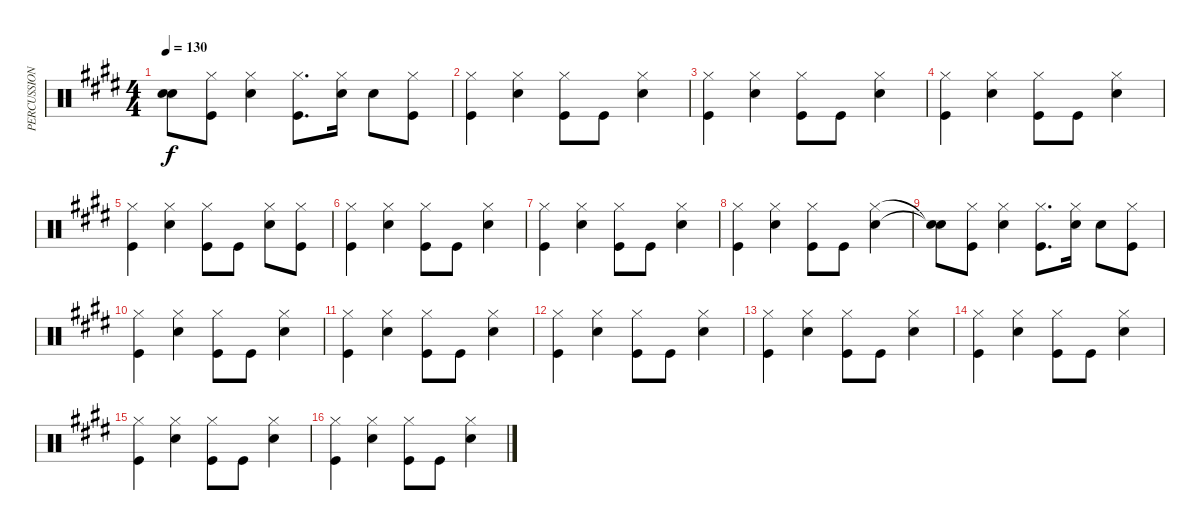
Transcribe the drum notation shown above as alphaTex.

\track ("PERCUSSION" "PERCUSSION") {instrument percussion}
\staff {score}
\articulation defaults
\ts (4 4)
\tempo 130
\clef neutral
\ks e
("Snare (hit)"{t} "Snare (hit)"{t}).8{dy f} ("Hi-Hat (closed)" "Kick (hit)").8 ("Hi-Hat (closed)" "Snare (hit) 2").4 ("Hi-Hat (closed)" "Kick (hit)").8{d} ("Hi-Hat (closed)" "Snare (hit) 2").16 "Snare (hit) 2".8 ("Hi-Hat (closed)" "Kick (hit)").8 |
("Hi-Hat (closed)" "Kick (hit)").4 ("Hi-Hat (closed)" "Snare (hit) 2").4 ("Hi-Hat (closed)" "Kick (hit)").8 "Kick (hit)".8 ("Hi-Hat (closed)" "Snare (hit) 2").4 |
("Hi-Hat (closed)" "Kick (hit)").4 ("Hi-Hat (closed)" "Snare (hit) 2").4 ("Hi-Hat (closed)" "Kick (hit)").8 "Kick (hit)".8 ("Hi-Hat (closed)" "Snare (hit) 2").4 |
("Hi-Hat (closed)" "Kick (hit)").4 ("Hi-Hat (closed)" "Snare (hit) 2").4 ("Hi-Hat (closed)" "Kick (hit)").8 "Kick (hit)".8 ("Hi-Hat (closed)" "Snare (hit) 2").4 |
("Hi-Hat (closed)" "Kick (hit)").4 ("Hi-Hat (closed)" "Snare (hit) 2").4 ("Hi-Hat (closed)" "Kick (hit)").8 "Kick (hit)".8 ("Hi-Hat (closed)" "Snare (hit) 2").8 ("Hi-Hat (closed)" "Kick (hit)").8 |
("Hi-Hat (closed)" "Kick (hit)").4 ("Hi-Hat (closed)" "Snare (hit) 2").4 ("Hi-Hat (closed)" "Kick (hit)").8 "Kick (hit)".8 ("Hi-Hat (closed)" "Snare (hit) 2").4 |
("Hi-Hat (closed)" "Kick (hit)").4 ("Hi-Hat (closed)" "Snare (hit) 2").4 ("Hi-Hat (closed)" "Kick (hit)").8 "Kick (hit)".8 ("Hi-Hat (closed)" "Snare (hit) 2").4 |
("Hi-Hat (closed)" "Kick (hit)").4 ("Hi-Hat (closed)" "Snare (hit) 2").4 ("Hi-Hat (closed)" "Kick (hit)").8 "Kick (hit)".8 ("Hi-Hat (closed)" "Snare (hit) 2").4 |
("Snare (hit)"{t} "Snare (hit)"{t}).8 ("Hi-Hat (closed)" "Kick (hit)").8 ("Hi-Hat (closed)" "Snare (hit) 2").4 ("Hi-Hat (closed)" "Kick (hit)").8{d} ("Hi-Hat (closed)" "Snare (hit) 2").16 "Snare (hit) 2".8 ("Hi-Hat (closed)" "Kick (hit)").8 |
("Hi-Hat (closed)" "Kick (hit)").4 ("Hi-Hat (closed)" "Snare (hit) 2").4 ("Hi-Hat (closed)" "Kick (hit)").8 "Kick (hit)".8 ("Hi-Hat (closed)" "Snare (hit) 2").4 |
("Hi-Hat (closed)" "Kick (hit)").4 ("Hi-Hat (closed)" "Snare (hit) 2").4 ("Hi-Hat (closed)" "Kick (hit)").8 "Kick (hit)".8 ("Hi-Hat (closed)" "Snare (hit) 2").4 |
("Hi-Hat (closed)" "Kick (hit)").4 ("Hi-Hat (closed)" "Snare (hit) 2").4 ("Hi-Hat (closed)" "Kick (hit)").8 "Kick (hit)".8 ("Hi-Hat (closed)" "Snare (hit) 2").4 |
("Hi-Hat (closed)" "Kick (hit)").4 ("Hi-Hat (closed)" "Snare (hit) 2").4 ("Hi-Hat (closed)" "Kick (hit)").8 "Kick (hit)".8 ("Hi-Hat (closed)" "Snare (hit) 2").4 |
("Hi-Hat (closed)" "Kick (hit)").4 ("Hi-Hat (closed)" "Snare (hit) 2").4 ("Hi-Hat (closed)" "Kick (hit)").8 "Kick (hit)".8 ("Hi-Hat (closed)" "Snare (hit) 2").4 |
("Hi-Hat (closed)" "Kick (hit)").4 ("Hi-Hat (closed)" "Snare (hit) 2").4 ("Hi-Hat (closed)" "Kick (hit)").8 "Kick (hit)".8 ("Hi-Hat (closed)" "Snare (hit) 2").4 |
("Hi-Hat (closed)" "Kick (hit)").4 ("Hi-Hat (closed)" "Snare (hit) 2").4 ("Hi-Hat (closed)" "Kick (hit)").8 "Kick (hit)".8 ("Hi-Hat (closed)" "Snare (hit) 2").4
